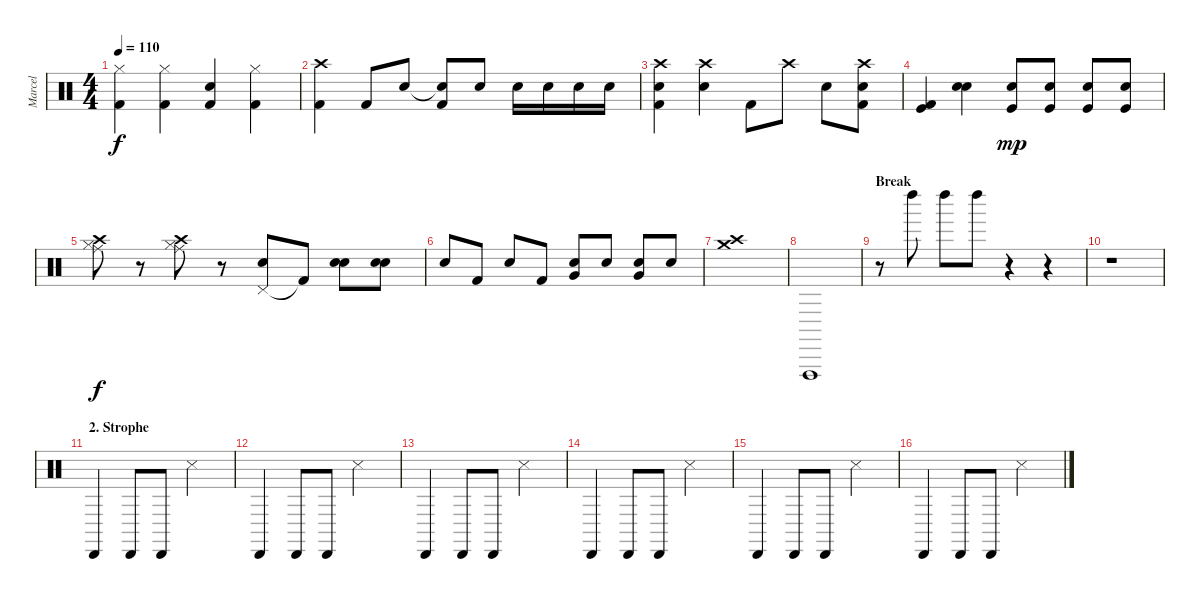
\track ("Marcel" "Marcel") {instrument percussion}
\staff {score}
\articulation defaults
\ts (4 4)
\tempo 110
\clef neutral
\ks c
("Hi-Hat (closed)" "Kick (hit) 2").4{dy f} ("Hi-Hat (closed)" "Kick (hit) 2").4 ("Electric Snare (hit)" "Kick (hit) 2").4 ("Hi-Hat (closed)" "Kick (hit) 2").4 |
("Crash high (hit)" "Kick (hit) 2").4 "Kick (hit) 2".8 "Electric Snare (hit)".8 ("Snare (hit) 2"{t} "Kick (hit) 2").8 "Electric Snare (hit)".8 "Electric Snare (hit)".16 "Electric Snare (hit)".16 "Electric Snare (hit)".16 "Electric Snare (hit)".16 |
("Crash high (hit)" "Electric Snare (hit)" "Kick (hit) 2").4 ("Crash high (hit)" "Electric Snare (hit)").4 "Kick (hit) 2".8 "Crash high (hit)".8 "Electric Snare (hit)".8 ("Crash high (hit)" "Electric Snare (hit)" "Kick (hit) 2").8 |
("Kick (hit)" "Kick (hit) 2").4 ("Electric Snare (hit)" "Snare (hit) 2").4 ("Kick (hit)" "Electric Snare (hit)").8{dy mp} ("Kick (hit)" "Electric Snare (hit)").8 ("Kick (hit)" "Electric Snare (hit)").8 ("Kick (hit)" "Electric Snare (hit)").8 |
("Crash high (hit)" "Hi-Hat (closed)" "Ride (middle)").8{dy f} r.8 ("Crash high (hit)" "Hi-Hat (closed)" "Ride (middle)").8 r.8 ("Pedal Hi-Hat (hit)" "Electric Snare (hit)").8 "Kick (hit) 2"{t}.8 ("Electric Snare (hit)" "Electric Snare (hit)").8 ("Electric Snare (hit)" "Electric Snare (hit)").8 |
"Electric Snare (hit)".8 "Kick (hit) 2".8 "Electric Snare (hit)".8 "Kick (hit) 2".8 ("Very Low Tom (hit)" "Electric Snare (hit)").8 "Electric Snare (hit)".8 ("Very Low Tom (hit)" "Electric Snare (hit)").8 "Electric Snare (hit)".8 |
("Crash medium (hit)" "Crash high (hit)").1 |
"Vibraslap (hit)".1 |
\section ("" "Break")
r.8 "Left Maraca (hit)".8 "Left Maraca (hit)".8 "Left Maraca (hit)".8 r.4 r.4 |
r.1 |
\section ("" "2. Strophe")
"Cabasa (hit)".4 "Cabasa (hit)".8 "Cabasa (hit)".8 "Snare (side stick) 3".2{volume 16} |
"Cabasa (hit)".4 "Cabasa (hit)".8 "Cabasa (hit)".8 "Snare (side stick) 3".2{volume 16} |
"Cabasa (hit)".4 "Cabasa (hit)".8 "Cabasa (hit)".8 "Snare (side stick) 3".2{volume 16} |
"Cabasa (hit)".4 "Cabasa (hit)".8 "Cabasa (hit)".8 "Snare (side stick) 3".2{volume 16} |
"Cabasa (hit)".4 "Cabasa (hit)".8 "Cabasa (hit)".8 "Snare (side stick) 3".2{volume 16} |
"Cabasa (hit)".4 "Cabasa (hit)".8 "Cabasa (hit)".8 "Snare (side stick) 3".2{volume 16}
